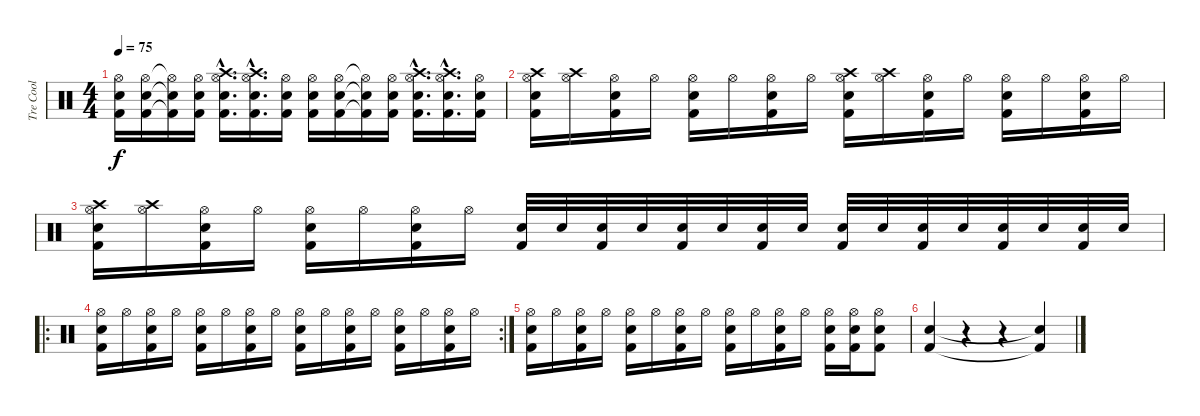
\track ("Tre Cool" "Tre Cool") {instrument percussion}
\staff {score}
\articulation defaults
\ts (4 4)
\tempo 75
\clef neutral
\ks c
("Hi-Hat (open)" "Snare (hit) 2" "Kick (hit) 2").16{dy f} ("Hi-Hat (open)" "Snare (hit) 2" "Kick (hit) 2").16 ("Hi-Hat (open)"{t} "Snare (hit) 2"{t} "Kick (hit) 2"{t}).16 ("Hi-Hat (open)" "Snare (hit) 2" "Kick (hit) 2").16 ("Crash high (hit)"{hac} "Hi-Hat (open)"{hac} "Snare (hit) 2"{hac} "Kick (hit) 2"{hac}).16{d} ("Crash high (hit)"{hac} "Hi-Hat (open)"{hac} "Snare (hit) 2"{hac} "Kick (hit) 2"{hac}).16{d} ("Hi-Hat (open)" "Snare (hit) 2" "Kick (hit) 2").16 ("Hi-Hat (open)" "Snare (hit) 2" "Kick (hit) 2").16 ("Hi-Hat (open)" "Snare (hit) 2" "Kick (hit) 2").16 ("Hi-Hat (open)"{t} "Snare (hit) 2"{t} "Kick (hit) 2"{t}).16 ("Hi-Hat (open)" "Snare (hit) 2" "Kick (hit) 2").16 ("Crash high (hit)"{hac} "Hi-Hat (open)"{hac} "Snare (hit) 2"{hac} "Kick (hit) 2"{hac}).16{d} ("Crash high (hit)"{hac} "Hi-Hat (open)"{hac} "Snare (hit) 2"{hac} "Kick (hit) 2"{hac}).16{d} ("Hi-Hat (open)" "Snare (hit) 2" "Kick (hit) 2").16 |
("Crash high (hit)" "Hi-Hat (open)" "Snare (hit) 2" "Kick (hit) 2").16 ("Crash high (hit)" "Hi-Hat (open)").16 ("Hi-Hat (open)" "Snare (hit) 2" "Kick (hit) 2").16 "Hi-Hat (open)".16 ("Hi-Hat (open)" "Snare (hit) 2" "Kick (hit) 2").16 "Hi-Hat (open)".16 ("Hi-Hat (open)" "Snare (hit) 2" "Kick (hit) 2").16 "Hi-Hat (open)".16 ("Crash high (hit)" "Hi-Hat (open)" "Snare (hit) 2" "Kick (hit) 2").16 ("Crash high (hit)" "Hi-Hat (open)").16 ("Hi-Hat (open)" "Snare (hit) 2" "Kick (hit) 2").16 "Hi-Hat (open)".16 ("Hi-Hat (open)" "Snare (hit) 2" "Kick (hit) 2").16 "Hi-Hat (open)".16 ("Hi-Hat (open)" "Snare (hit) 2" "Kick (hit) 2").16 "Hi-Hat (open)".16 |
("Crash high (hit)" "Hi-Hat (open)" "Snare (hit) 2" "Kick (hit) 2").16 ("Crash high (hit)" "Hi-Hat (open)").16 ("Hi-Hat (open)" "Snare (hit) 2" "Kick (hit) 2").16 "Hi-Hat (open)".16 ("Hi-Hat (open)" "Snare (hit) 2" "Kick (hit) 2").16 "Hi-Hat (open)".16 ("Hi-Hat (open)" "Snare (hit) 2" "Kick (hit) 2").16 "Hi-Hat (open)".16 ("Snare (hit) 2" "Kick (hit) 2").32 "Snare (hit) 2".32 ("Snare (hit) 2" "Kick (hit) 2").32 "Snare (hit) 2".32 ("Snare (hit) 2" "Kick (hit) 2").32 "Snare (hit) 2".32 ("Snare (hit) 2" "Kick (hit) 2").32 "Snare (hit) 2".32 ("Snare (hit) 2" "Kick (hit) 2").32 "Snare (hit) 2".32 ("Snare (hit) 2" "Kick (hit) 2").32 "Snare (hit) 2".32 ("Snare (hit) 2" "Kick (hit) 2").32 "Snare (hit) 2".32 ("Snare (hit) 2" "Kick (hit) 2").32 "Snare (hit) 2".32 |
\ro
\rc 2
("Hi-Hat (open)" "Snare (hit) 2" "Kick (hit) 2").16 "Hi-Hat (open)".16 ("Hi-Hat (open)" "Snare (hit) 2" "Kick (hit) 2").16 "Hi-Hat (open)".16 ("Hi-Hat (open)" "Snare (hit) 2" "Kick (hit) 2").16 "Hi-Hat (open)".16 ("Hi-Hat (open)" "Snare (hit) 2" "Kick (hit) 2").16 "Hi-Hat (open)".16 ("Hi-Hat (open)" "Snare (hit) 2" "Kick (hit) 2").16 "Hi-Hat (open)".16 ("Hi-Hat (open)" "Snare (hit) 2" "Kick (hit) 2").16 "Hi-Hat (open)".16 ("Hi-Hat (open)" "Snare (hit) 2" "Kick (hit) 2").16 "Hi-Hat (open)".16 ("Hi-Hat (open)" "Snare (hit) 2" "Kick (hit) 2").16 "Hi-Hat (open)".16 |
("Hi-Hat (open)" "Snare (hit) 2" "Kick (hit) 2").16 "Hi-Hat (open)".16 ("Hi-Hat (open)" "Snare (hit) 2" "Kick (hit) 2").16 "Hi-Hat (open)".16 ("Hi-Hat (open)" "Snare (hit) 2" "Kick (hit) 2").16 "Hi-Hat (open)".16 ("Hi-Hat (open)" "Snare (hit) 2" "Kick (hit) 2").16 "Hi-Hat (open)".16 ("Hi-Hat (open)" "Snare (hit) 2" "Kick (hit) 2").16 "Hi-Hat (open)".16 ("Hi-Hat (open)" "Snare (hit) 2" "Kick (hit) 2").16 "Hi-Hat (open)".16 ("Hi-Hat (open)" "Snare (hit) 2" "Kick (hit) 2").16 ("Hi-Hat (open)" "Snare (hit) 2" "Kick (hit) 2").16 ("Hi-Hat (open)" "Snare (hit) 2" "Kick (hit) 2").8 |
("Snare (hit) 2" "Kick (hit) 2").4 r.4 r.4 ("Snare (hit) 2"{t} "Kick (hit) 2"{t}).4
